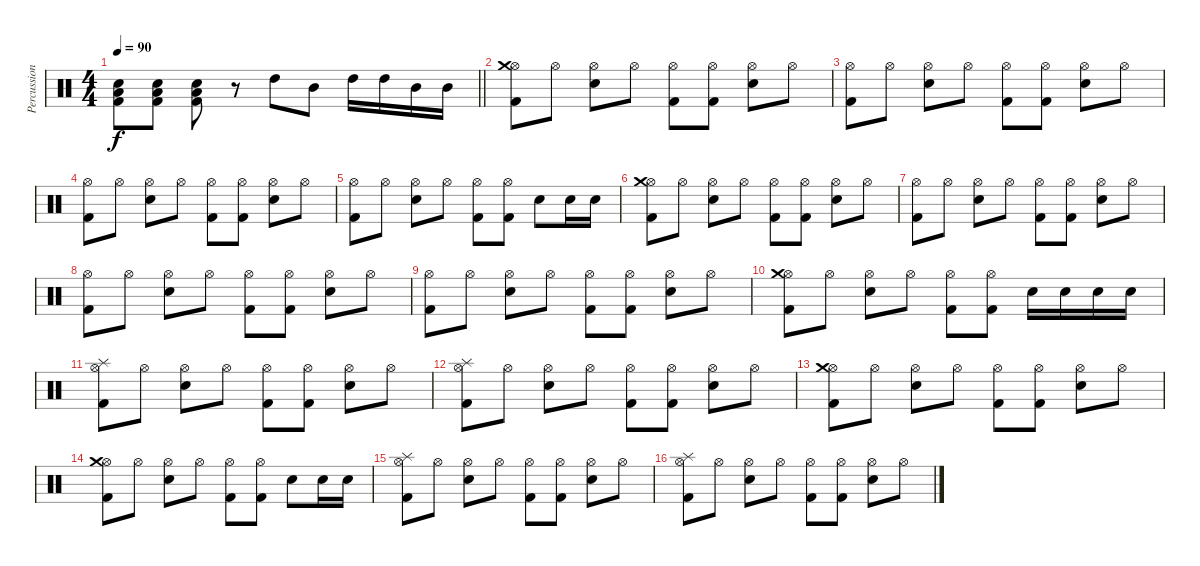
\track ("Percussion" "Percussion") {instrument percussion}
\staff {score}
\articulation defaults
\ts (4 4)
\tempo 90
\clef neutral
\barLineRight lightlight
\ks c
("Electric Snare (hit)" "Kick (hit) 2" "Low Tom (hit)").8{dy f} ("Electric Snare (hit)" "Kick (hit) 2" "Low Tom (hit)").8 ("Electric Snare (hit)" "Kick (hit) 2" "Low Tom (hit)").8 r.8 "High Tom (hit)".8 "Mid Tom (hit)".8 "High Tom (hit)".16 "High Tom (hit)".16 "Mid Tom (hit)".16 "Mid Tom (hit)".16 |
("Hi-Hat (open)" "Kick (hit) 2" "Crash medium (hit)").8 "Hi-Hat (open)".8 ("Hi-Hat (open)" "Electric Snare (hit)").8 "Hi-Hat (open)".8 ("Hi-Hat (open)" "Kick (hit) 2").8 ("Hi-Hat (open)" "Kick (hit) 2").8 ("Hi-Hat (open)" "Electric Snare (hit)").8 "Hi-Hat (open)".8 |
("Hi-Hat (open)" "Kick (hit) 2").8 "Hi-Hat (open)".8 ("Hi-Hat (open)" "Electric Snare (hit)").8 "Hi-Hat (open)".8 ("Hi-Hat (open)" "Kick (hit) 2").8 ("Hi-Hat (open)" "Kick (hit) 2").8 ("Hi-Hat (open)" "Electric Snare (hit)").8 "Hi-Hat (open)".8 |
("Hi-Hat (open)" "Kick (hit) 2").8 "Hi-Hat (open)".8 ("Hi-Hat (open)" "Electric Snare (hit)").8 "Hi-Hat (open)".8 ("Hi-Hat (open)" "Kick (hit) 2").8 ("Hi-Hat (open)" "Kick (hit) 2").8 ("Hi-Hat (open)" "Electric Snare (hit)").8 "Hi-Hat (open)".8 |
("Hi-Hat (open)" "Kick (hit) 2").8 "Hi-Hat (open)".8 ("Hi-Hat (open)" "Electric Snare (hit)").8 "Hi-Hat (open)".8 ("Hi-Hat (open)" "Kick (hit) 2").8 ("Kick (hit) 2" "Hi-Hat (open)").8 "Electric Snare (hit)".8 "Electric Snare (hit)".16 "Electric Snare (hit)".16 |
("Hi-Hat (open)" "Kick (hit) 2" "Crash medium (hit)").8 "Hi-Hat (open)".8 ("Hi-Hat (open)" "Electric Snare (hit)").8 "Hi-Hat (open)".8 ("Hi-Hat (open)" "Kick (hit) 2").8 ("Hi-Hat (open)" "Kick (hit) 2").8 ("Hi-Hat (open)" "Electric Snare (hit)").8 "Hi-Hat (open)".8 |
("Hi-Hat (open)" "Kick (hit) 2").8 "Hi-Hat (open)".8 ("Hi-Hat (open)" "Electric Snare (hit)").8 "Hi-Hat (open)".8 ("Hi-Hat (open)" "Kick (hit) 2").8 ("Hi-Hat (open)" "Kick (hit) 2").8 ("Hi-Hat (open)" "Electric Snare (hit)").8 "Hi-Hat (open)".8 |
("Hi-Hat (open)" "Kick (hit) 2").8 "Hi-Hat (open)".8 ("Hi-Hat (open)" "Electric Snare (hit)").8 "Hi-Hat (open)".8 ("Hi-Hat (open)" "Kick (hit) 2").8 ("Hi-Hat (open)" "Kick (hit) 2").8 ("Hi-Hat (open)" "Electric Snare (hit)").8 "Hi-Hat (open)".8 |
("Hi-Hat (open)" "Kick (hit) 2").8 "Hi-Hat (open)".8 ("Hi-Hat (open)" "Electric Snare (hit)").8 "Hi-Hat (open)".8 ("Hi-Hat (open)" "Kick (hit) 2").8 ("Hi-Hat (open)" "Kick (hit) 2").8 ("Hi-Hat (open)" "Electric Snare (hit)").8 "Hi-Hat (open)".8 |
("Hi-Hat (open)" "Kick (hit) 2" "Crash medium (hit)").8 "Hi-Hat (open)".8 ("Hi-Hat (open)" "Electric Snare (hit)").8 "Hi-Hat (open)".8 ("Hi-Hat (open)" "Kick (hit) 2").8 ("Hi-Hat (open)" "Kick (hit) 2").8 "Electric Snare (hit)".16 "Electric Snare (hit)".16 "Electric Snare (hit)".16 "Electric Snare (hit)".16 |
("Hi-Hat (open)" "Kick (hit) 2" "Splash (hit)").8 "Hi-Hat (open)".8 ("Hi-Hat (open)" "Electric Snare (hit)").8 "Hi-Hat (open)".8 ("Hi-Hat (open)" "Kick (hit) 2").8 ("Hi-Hat (open)" "Kick (hit) 2").8 ("Hi-Hat (open)" "Electric Snare (hit)").8 "Hi-Hat (open)".8 |
("Hi-Hat (open)" "Kick (hit) 2" "Splash (hit)").8 "Hi-Hat (open)".8 ("Hi-Hat (open)" "Electric Snare (hit)").8 "Hi-Hat (open)".8 ("Hi-Hat (open)" "Kick (hit) 2").8 ("Hi-Hat (open)" "Kick (hit) 2").8 ("Hi-Hat (open)" "Electric Snare (hit)").8 "Hi-Hat (open)".8 |
("Hi-Hat (open)" "Kick (hit) 2" "Crash medium (hit)").8 "Hi-Hat (open)".8 ("Hi-Hat (open)" "Electric Snare (hit)").8 "Hi-Hat (open)".8 ("Hi-Hat (open)" "Kick (hit) 2").8 ("Hi-Hat (open)" "Kick (hit) 2").8 ("Hi-Hat (open)" "Electric Snare (hit)").8 "Hi-Hat (open)".8 |
("Hi-Hat (open)" "Kick (hit) 2" "Crash medium (hit)").8 "Hi-Hat (open)".8 ("Hi-Hat (open)" "Electric Snare (hit)").8 "Hi-Hat (open)".8 ("Hi-Hat (open)" "Kick (hit) 2").8 ("Kick (hit) 2" "Hi-Hat (open)").8 "Electric Snare (hit)".8 "Electric Snare (hit)".16 "Electric Snare (hit)".16 |
("Hi-Hat (open)" "Kick (hit) 2" "Splash (hit)").8 "Hi-Hat (open)".8 ("Hi-Hat (open)" "Electric Snare (hit)").8 "Hi-Hat (open)".8 ("Hi-Hat (open)" "Kick (hit) 2").8 ("Hi-Hat (open)" "Kick (hit) 2").8 ("Hi-Hat (open)" "Electric Snare (hit)").8 "Hi-Hat (open)".8 |
("Hi-Hat (open)" "Kick (hit) 2" "Splash (hit)").8 "Hi-Hat (open)".8 ("Hi-Hat (open)" "Electric Snare (hit)").8 "Hi-Hat (open)".8 ("Hi-Hat (open)" "Kick (hit) 2").8 ("Hi-Hat (open)" "Kick (hit) 2").8 ("Hi-Hat (open)" "Electric Snare (hit)").8 "Hi-Hat (open)".8
